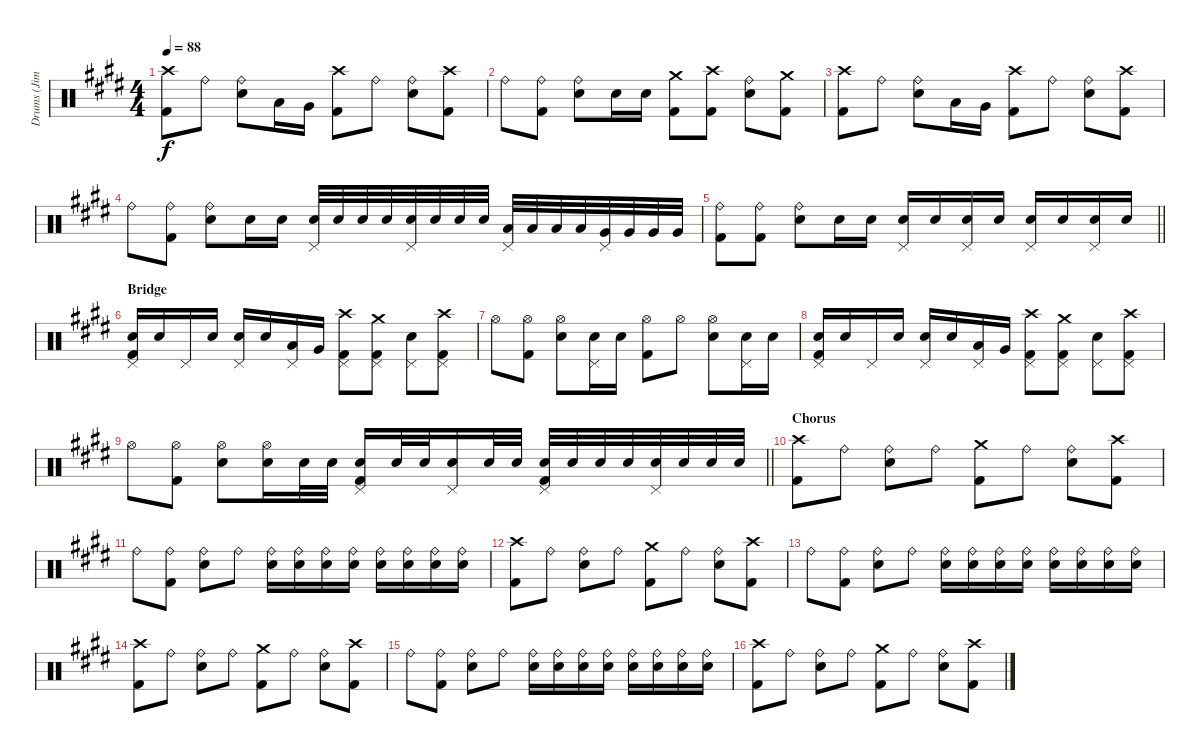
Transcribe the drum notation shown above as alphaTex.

\track ("Drums (Jimmy)" "Drums (Jim") {instrument percussion}
\staff {score}
\articulation defaults
\ts (4 4)
\tempo 88
\clef neutral
\ks e
("Crash high (hit)" "Kick (hit) 2").8{dy f} "Ride (bell)".8 ("Ride (bell)" "Snare (hit) 2").8 "Low Tom (hit)".16 "Very Low Tom (hit)".16 ("Crash high (hit)" "Kick (hit) 2").8 "Ride (bell)".8 ("Ride (bell)" "Snare (hit) 2").8 ("Crash high (hit)" "Kick (hit) 2").8 |
\ks c#minor "Ride (bell)".8
("Ride (bell)" "Kick (hit) 2").8 ("Ride (bell)" "Snare (hit) 2").8 "Snare (hit) 2".16 "Snare (hit) 2".16 ("Crash medium (hit)" "Kick (hit) 2").8 ("Crash high (hit)" "Kick (hit) 2").8 ("Ride (bell)" "Snare (hit) 2").8 ("Crash medium (hit)" "Kick (hit) 2").8 |
\ks e
("Crash high (hit)" "Kick (hit) 2").8 "Ride (bell)".8 ("Ride (bell)" "Snare (hit) 2").8 "Low Tom (hit)".16 "Very Low Tom (hit)".16 ("Crash high (hit)" "Kick (hit) 2").8 "Ride (bell)".8 ("Ride (bell)" "Snare (hit) 2").8 ("Crash high (hit)" "Kick (hit) 2").8 |
\ks c#minor "Ride (bell)".8
("Ride (bell)" "Kick (hit) 2").8 ("Ride (bell)" "Snare (hit) 2").8 "Snare (hit) 2".16 "Snare (hit) 2".16 ("Snare (hit) 2" "Pedal Hi-Hat (hit)").32 "Snare (hit) 2".32 "Snare (hit) 2".32 "Snare (hit) 2".32 ("Snare (hit) 2" "Pedal Hi-Hat (hit)").32 "Snare (hit) 2".32 "Snare (hit) 2".32 "Snare (hit) 2".32 ("Low Tom (hit)" "Pedal Hi-Hat (hit)").32 "Low Tom (hit)".32 "Low Tom (hit)".32 "Low Tom (hit)".32 ("Very Low Tom (hit)" "Pedal Hi-Hat (hit)").32 "Very Low Tom (hit)".32 "Very Low Tom (hit)".32 "Very Low Tom (hit)".32 |
\barLineRight lightlight
("Ride (bell)" "Kick (hit) 2").8 ("Ride (bell)" "Kick (hit) 2").8 ("Ride (bell)" "Snare (hit) 2").8 "Snare (hit) 2".16 "Snare (hit) 2".16 ("Snare (hit) 2" "Pedal Hi-Hat (hit)").16 "Snare (hit) 2".16 ("Snare (hit) 2" "Pedal Hi-Hat (hit)").16 "Snare (hit) 2".16 ("Snare (hit) 2" "Pedal Hi-Hat (hit)").16 "Snare (hit) 2".16 ("Snare (hit) 2" "Pedal Hi-Hat (hit)").16 "Snare (hit) 2".16 |
\section ("" "Bridge")
\ks e
("Snare (hit) 2" "Kick (hit) 2" "Pedal Hi-Hat (hit)").16 "Snare (hit) 2".16 "Pedal Hi-Hat (hit)".16 "Snare (hit) 2".16 ("Snare (hit) 2" "Pedal Hi-Hat (hit)").16 "Snare (hit) 2".16 ("Low Tom (hit)" "Pedal Hi-Hat (hit)").16 "Very Low Tom (hit)".16 ("Crash high (hit)" "Kick (hit) 2" "Pedal Hi-Hat (hit)").8 ("Crash medium (hit)" "Kick (hit) 2" "Pedal Hi-Hat (hit)").8 ("Snare (hit) 2" "Pedal Hi-Hat (hit)").8 ("Crash high (hit)" "Kick (hit) 2" "Pedal Hi-Hat (hit)").8 |
\ks c#minor "Hi-Hat (open)".8
("Hi-Hat (open)" "Kick (hit) 2").8 ("Hi-Hat (open)" "Snare (hit) 2").8 ("Snare (hit) 2" "Pedal Hi-Hat (hit)").16 "Snare (hit) 2".16 ("Hi-Hat (open)" "Kick (hit) 2").8 "Hi-Hat (open)".8 ("Hi-Hat (open)" "Snare (hit) 2").8 ("Snare (hit) 2" "Pedal Hi-Hat (hit)").16 "Snare (hit) 2".16 |
\ks e
("Snare (hit) 2" "Kick (hit) 2" "Pedal Hi-Hat (hit)").16 "Snare (hit) 2".16 "Pedal Hi-Hat (hit)".16 "Snare (hit) 2".16 ("Snare (hit) 2" "Pedal Hi-Hat (hit)").16 "Snare (hit) 2".16 ("Low Tom (hit)" "Pedal Hi-Hat (hit)").16 "Very Low Tom (hit)".16 ("Crash high (hit)" "Kick (hit) 2" "Pedal Hi-Hat (hit)").8 ("Crash medium (hit)" "Kick (hit) 2" "Pedal Hi-Hat (hit)").8 ("Snare (hit) 2" "Pedal Hi-Hat (hit)").8 ("Crash high (hit)" "Kick (hit) 2" "Pedal Hi-Hat (hit)").8 |
\barLineRight lightlight
\ks c#minor "Hi-Hat (open)".8
("Hi-Hat (open)" "Kick (hit) 2").8 ("Hi-Hat (open)" "Snare (hit) 2").8 ("Hi-Hat (open)" "Snare (hit) 2").16 "Snare (hit) 2".32 "Snare (hit) 2".32 ("Snare (hit) 2" "Kick (hit) 2" "Pedal Hi-Hat (hit)").16 "Snare (hit) 2".32 "Snare (hit) 2".32 ("Snare (hit) 2" "Pedal Hi-Hat (hit)").16 "Snare (hit) 2".32 "Snare (hit) 2".32 ("Snare (hit) 2" "Kick (hit) 2" "Pedal Hi-Hat (hit)").32 "Snare (hit) 2".32 "Snare (hit) 2".32 "Snare (hit) 2".32 ("Snare (hit) 2" "Pedal Hi-Hat (hit)").32 "Snare (hit) 2".32 "Snare (hit) 2".32 "Snare (hit) 2".32 |
\section ("" "Chorus")
("Crash high (hit)" "Kick (hit) 2").8 "Ride (bell)".8 ("Ride (bell)" "Snare (hit) 2").8 "Ride (bell)".8 ("Crash medium (hit)" "Kick (hit) 2").8 "Ride (bell)".8 ("Ride (bell)" "Snare (hit) 2").8 ("Crash high (hit)" "Kick (hit) 2").8 |
\ks e "Ride (bell)".8
("Ride (bell)" "Kick (hit) 2").8 ("Ride (bell)" "Snare (hit) 2").8 "Ride (bell)".8 ("Ride (bell)" "Snare (hit) 2").16 ("Ride (bell)" "Snare (hit) 2").16 ("Ride (bell)" "Snare (hit) 2").16 ("Ride (bell)" "Snare (hit) 2").16 ("Ride (bell)" "Snare (hit) 2").16 ("Ride (bell)" "Snare (hit) 2").16 ("Ride (bell)" "Snare (hit) 2").16 ("Ride (bell)" "Snare (hit) 2").16 |
\ks c#minor
("Crash high (hit)" "Kick (hit) 2").8 "Ride (bell)".8 ("Ride (bell)" "Snare (hit) 2").8 "Ride (bell)".8 ("Crash medium (hit)" "Kick (hit) 2").8 "Ride (bell)".8 ("Ride (bell)" "Snare (hit) 2").8 ("Crash high (hit)" "Kick (hit) 2").8 |
\ks e "Ride (bell)".8
("Ride (bell)" "Kick (hit) 2").8 ("Ride (bell)" "Snare (hit) 2").8 "Ride (bell)".8 ("Ride (bell)" "Snare (hit) 2").16 ("Ride (bell)" "Snare (hit) 2").16 ("Ride (bell)" "Snare (hit) 2").16 ("Ride (bell)" "Snare (hit) 2").16 ("Ride (bell)" "Snare (hit) 2").16 ("Ride (bell)" "Snare (hit) 2").16 ("Ride (bell)" "Snare (hit) 2").16 ("Ride (bell)" "Snare (hit) 2").16 |
\ks c#minor
("Crash high (hit)" "Kick (hit) 2").8 "Ride (bell)".8 ("Ride (bell)" "Snare (hit) 2").8 "Ride (bell)".8 ("Crash medium (hit)" "Kick (hit) 2").8 "Ride (bell)".8 ("Ride (bell)" "Snare (hit) 2").8 ("Crash high (hit)" "Kick (hit) 2").8 |
\ks e "Ride (bell)".8
("Ride (bell)" "Kick (hit) 2").8 ("Ride (bell)" "Snare (hit) 2").8 "Ride (bell)".8 ("Ride (bell)" "Snare (hit) 2").16 ("Ride (bell)" "Snare (hit) 2").16 ("Ride (bell)" "Snare (hit) 2").16 ("Ride (bell)" "Snare (hit) 2").16 ("Ride (bell)" "Snare (hit) 2").16 ("Ride (bell)" "Snare (hit) 2").16 ("Ride (bell)" "Snare (hit) 2").16 ("Ride (bell)" "Snare (hit) 2").16 |
\ks c#minor
("Crash high (hit)" "Kick (hit) 2").8 "Ride (bell)".8 ("Ride (bell)" "Snare (hit) 2").8 "Ride (bell)".8 ("Crash medium (hit)" "Kick (hit) 2").8 "Ride (bell)".8 ("Ride (bell)" "Snare (hit) 2").8 ("Crash high (hit)" "Kick (hit) 2").8
